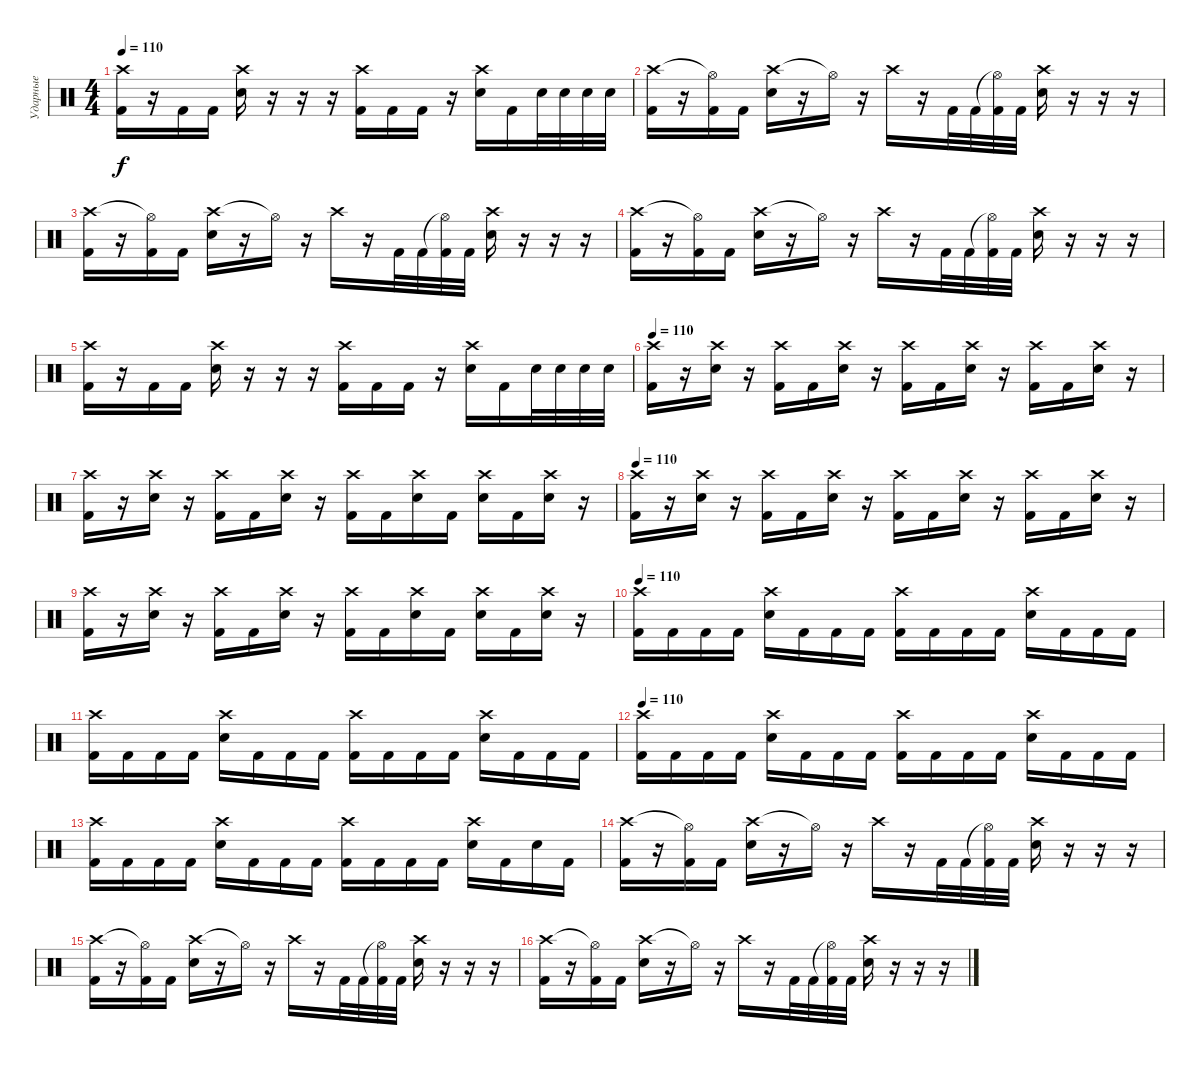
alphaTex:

\track ("Ударные" "Ударные") {instrument percussion}
\staff {score}
\articulation defaults
\ts (4 4)
\tempo 110
\clef neutral
\ks c
("Crash high (hit)" "Kick (hit) 2").16{dy f} r.16 "Kick (hit) 2".16 "Kick (hit) 2".16 ("Crash high (hit)" "Snare (hit) 2").16 r.16 r.16 r.16 ("Crash high (hit)" "Kick (hit) 2").16 "Kick (hit) 2".16 "Kick (hit) 2".16 r.16 ("Crash high (hit)" "Snare (hit) 2").16 "Kick (hit) 2".16 "Snare (hit) 2".32 "Snare (hit) 2".32 "Snare (hit) 2".32 "Snare (hit) 2".32 |
("Crash high (hit)" "Kick (hit) 2").16 r.16 ("Hi-Hat (open)"{t} "Kick (hit) 2").16 "Kick (hit) 2".16 ("Crash high (hit)" "Snare (hit) 2").16 r.16 "Hi-Hat (open)"{t}.16 r.16 "Crash high (hit)".16 r.16 "Kick (hit) 2".32 "Kick (hit) 2".32 ("Hi-Hat (open)"{t} "Kick (hit) 2").32 "Kick (hit) 2".32 ("Crash high (hit)" "Snare (hit) 2").16 r.16 r.16 r.16 |
("Crash high (hit)" "Kick (hit) 2").16 r.16 ("Hi-Hat (open)"{t} "Kick (hit) 2").16 "Kick (hit) 2".16 ("Crash high (hit)" "Snare (hit) 2").16 r.16 "Hi-Hat (open)"{t}.16 r.16 "Crash high (hit)".16 r.16 "Kick (hit) 2".32 "Kick (hit) 2".32 ("Hi-Hat (open)"{t} "Kick (hit) 2").32 "Kick (hit) 2".32 ("Crash high (hit)" "Snare (hit) 2").16 r.16 r.16 r.16 |
("Crash high (hit)" "Kick (hit) 2").16 r.16 ("Hi-Hat (open)"{t} "Kick (hit) 2").16 "Kick (hit) 2".16 ("Crash high (hit)" "Snare (hit) 2").16 r.16 "Hi-Hat (open)"{t}.16 r.16 "Crash high (hit)".16 r.16 "Kick (hit) 2".32 "Kick (hit) 2".32 ("Hi-Hat (open)"{t} "Kick (hit) 2").32 "Kick (hit) 2".32 ("Crash high (hit)" "Snare (hit) 2").16 r.16 r.16 r.16 |
("Crash high (hit)" "Kick (hit) 2").16 r.16 "Kick (hit) 2".16 "Kick (hit) 2".16 ("Crash high (hit)" "Snare (hit) 2").16 r.16 r.16 r.16 ("Crash high (hit)" "Kick (hit) 2").16 "Kick (hit) 2".16 "Kick (hit) 2".16 r.16 ("Crash high (hit)" "Snare (hit) 2").16 "Kick (hit) 2".16 "Snare (hit) 2".32 "Snare (hit) 2".32 "Snare (hit) 2".32 "Snare (hit) 2".32 |
\tempo 110
("Crash high (hit)" "Kick (hit) 2").16 r.16 ("Crash high (hit)" "Snare (hit) 2").16 r.16 ("Crash high (hit)" "Kick (hit) 2").16 "Kick (hit) 2".16 ("Crash high (hit)" "Snare (hit) 2").16 r.16 ("Crash high (hit)" "Kick (hit) 2").16 "Kick (hit) 2".16 ("Crash high (hit)" "Snare (hit) 2").16 r.16 ("Crash high (hit)" "Kick (hit) 2").16 "Kick (hit) 2".16 ("Crash high (hit)" "Snare (hit) 2").16 r.16 |
("Crash high (hit)" "Kick (hit) 2").16 r.16 ("Crash high (hit)" "Snare (hit) 2").16 r.16 ("Crash high (hit)" "Kick (hit) 2").16 "Kick (hit) 2".16 ("Crash high (hit)" "Snare (hit) 2").16 r.16 ("Crash high (hit)" "Kick (hit) 2").16 "Kick (hit) 2".16 ("Crash high (hit)" "Snare (hit) 2").16 "Kick (hit) 2".16 ("Crash high (hit)" "Snare (hit) 2").16 "Kick (hit) 2".16 ("Crash high (hit)" "Snare (hit) 2").16 r.16 |
\tempo 110
("Crash high (hit)" "Kick (hit) 2").16 r.16 ("Crash high (hit)" "Snare (hit) 2").16 r.16 ("Crash high (hit)" "Kick (hit) 2").16 "Kick (hit) 2".16 ("Crash high (hit)" "Snare (hit) 2").16 r.16 ("Crash high (hit)" "Kick (hit) 2").16 "Kick (hit) 2".16 ("Crash high (hit)" "Snare (hit) 2").16 r.16 ("Crash high (hit)" "Kick (hit) 2").16 "Kick (hit) 2".16 ("Crash high (hit)" "Snare (hit) 2").16 r.16 |
("Crash high (hit)" "Kick (hit) 2").16 r.16 ("Crash high (hit)" "Snare (hit) 2").16 r.16 ("Crash high (hit)" "Kick (hit) 2").16 "Kick (hit) 2".16 ("Crash high (hit)" "Snare (hit) 2").16 r.16 ("Crash high (hit)" "Kick (hit) 2").16 "Kick (hit) 2".16 ("Crash high (hit)" "Snare (hit) 2").16 "Kick (hit) 2".16 ("Crash high (hit)" "Snare (hit) 2").16 "Kick (hit) 2".16 ("Crash high (hit)" "Snare (hit) 2").16 r.16 |
\tempo 110
("Crash high (hit)" "Kick (hit) 2").16 "Kick (hit) 2".16 "Kick (hit) 2".16 "Kick (hit) 2".16 ("Crash high (hit)" "Snare (hit) 2").16 "Kick (hit) 2".16 "Kick (hit) 2".16 "Kick (hit) 2".16 ("Crash high (hit)" "Kick (hit) 2").16 "Kick (hit) 2".16 "Kick (hit) 2".16 "Kick (hit) 2".16 ("Crash high (hit)" "Snare (hit) 2").16 "Kick (hit) 2".16 "Kick (hit) 2".16 "Kick (hit) 2".16 |
("Crash high (hit)" "Kick (hit) 2").16 "Kick (hit) 2".16 "Kick (hit) 2".16 "Kick (hit) 2".16 ("Crash high (hit)" "Snare (hit) 2").16 "Kick (hit) 2".16 "Kick (hit) 2".16 "Kick (hit) 2".16 ("Crash high (hit)" "Kick (hit) 2").16 "Kick (hit) 2".16 "Kick (hit) 2".16 "Kick (hit) 2".16 ("Crash high (hit)" "Snare (hit) 2").16 "Kick (hit) 2".16 "Kick (hit) 2".16 "Kick (hit) 2".16 |
\tempo 110
("Crash high (hit)" "Kick (hit) 2").16 "Kick (hit) 2".16 "Kick (hit) 2".16 "Kick (hit) 2".16 ("Crash high (hit)" "Snare (hit) 2").16 "Kick (hit) 2".16 "Kick (hit) 2".16 "Kick (hit) 2".16 ("Crash high (hit)" "Kick (hit) 2").16 "Kick (hit) 2".16 "Kick (hit) 2".16 "Kick (hit) 2".16 ("Crash high (hit)" "Snare (hit) 2").16 "Kick (hit) 2".16 "Kick (hit) 2".16 "Kick (hit) 2".16 |
("Crash high (hit)" "Kick (hit) 2").16 "Kick (hit) 2".16 "Kick (hit) 2".16 "Kick (hit) 2".16 ("Crash high (hit)" "Snare (hit) 2").16 "Kick (hit) 2".16 "Kick (hit) 2".16 "Kick (hit) 2".16 ("Crash high (hit)" "Kick (hit) 2").16 "Kick (hit) 2".16 "Kick (hit) 2".16 "Kick (hit) 2".16 ("Crash high (hit)" "Snare (hit) 2").16 "Kick (hit) 2".16 "Snare (hit) 2".16 "Kick (hit) 2".16 |
("Crash high (hit)" "Kick (hit) 2").16 r.16 ("Hi-Hat (open)"{t} "Kick (hit) 2").16 "Kick (hit) 2".16 ("Crash high (hit)" "Snare (hit) 2").16 r.16 "Hi-Hat (open)"{t}.16 r.16 "Crash high (hit)".16 r.16 "Kick (hit) 2".32 "Kick (hit) 2".32 ("Hi-Hat (open)"{t} "Kick (hit) 2").32 "Kick (hit) 2".32 ("Crash high (hit)" "Snare (hit) 2").16 r.16 r.16 r.16 |
("Crash high (hit)" "Kick (hit) 2").16 r.16 ("Hi-Hat (open)"{t} "Kick (hit) 2").16 "Kick (hit) 2".16 ("Crash high (hit)" "Snare (hit) 2").16 r.16 "Hi-Hat (open)"{t}.16 r.16 "Crash high (hit)".16 r.16 "Kick (hit) 2".32 "Kick (hit) 2".32 ("Hi-Hat (open)"{t} "Kick (hit) 2").32 "Kick (hit) 2".32 ("Crash high (hit)" "Snare (hit) 2").16 r.16 r.16 r.16 |
("Crash high (hit)" "Kick (hit) 2").16 r.16 ("Hi-Hat (open)"{t} "Kick (hit) 2").16 "Kick (hit) 2".16 ("Crash high (hit)" "Snare (hit) 2").16 r.16 "Hi-Hat (open)"{t}.16 r.16 "Crash high (hit)".16 r.16 "Kick (hit) 2".32 "Kick (hit) 2".32 ("Hi-Hat (open)"{t} "Kick (hit) 2").32 "Kick (hit) 2".32 ("Crash high (hit)" "Snare (hit) 2").16 r.16 r.16 r.16
